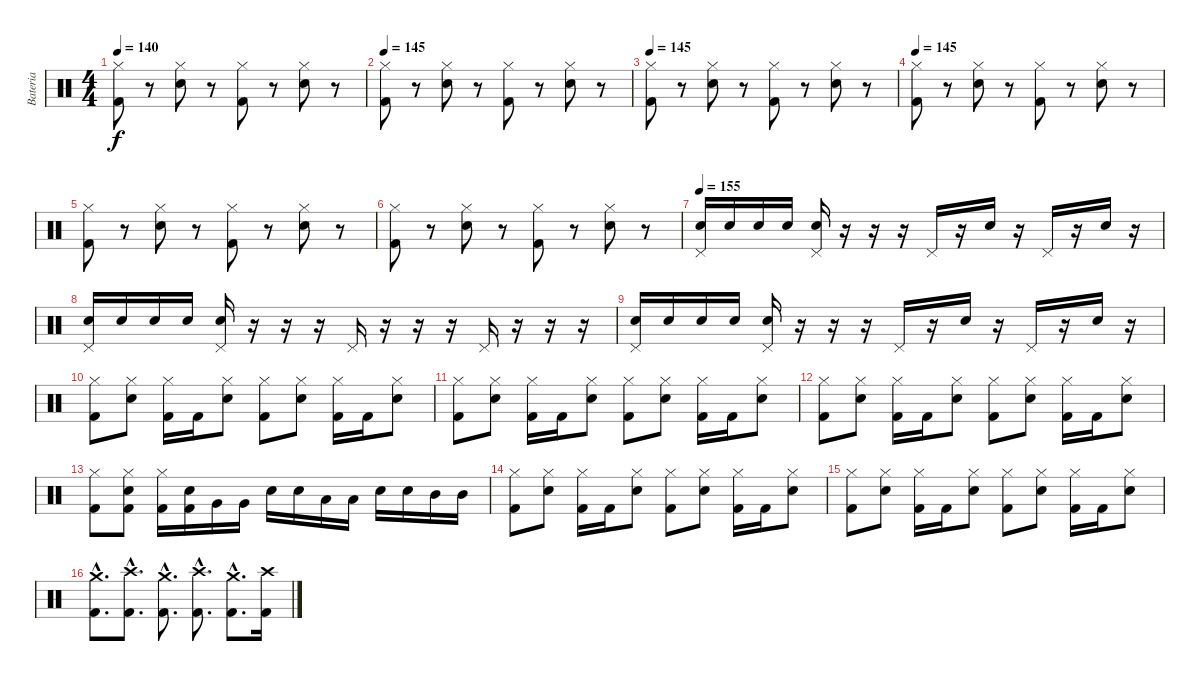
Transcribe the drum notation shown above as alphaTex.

\track ("Bateria" "Bateria") {instrument percussion}
\staff {score}
\articulation defaults
\ts (4 4)
\tempo 145
\tempo 140
\clef neutral
\ks c
("Hi-Hat (closed)" "Kick (hit) 2").8{dy f} r.8 ("Hi-Hat (closed)" "Electric Snare (hit)").8 r.8 ("Hi-Hat (closed)" "Kick (hit) 2").8 r.8 ("Hi-Hat (closed)" "Electric Snare (hit)").8 r.8 |
\tempo 145
("Hi-Hat (closed)" "Kick (hit) 2").8 r.8 ("Hi-Hat (closed)" "Electric Snare (hit)").8 r.8 ("Hi-Hat (closed)" "Kick (hit) 2").8 r.8 ("Hi-Hat (closed)" "Electric Snare (hit)").8 r.8 |
\tempo 145
("Hi-Hat (closed)" "Kick (hit) 2").8 r.8 ("Hi-Hat (closed)" "Electric Snare (hit)").8 r.8 ("Hi-Hat (closed)" "Kick (hit) 2").8 r.8 ("Hi-Hat (closed)" "Electric Snare (hit)").8 r.8 |
\tempo 145
("Hi-Hat (closed)" "Kick (hit) 2").8 r.8 ("Hi-Hat (closed)" "Electric Snare (hit)").8 r.8 ("Hi-Hat (closed)" "Kick (hit) 2").8 r.8 ("Hi-Hat (closed)" "Electric Snare (hit)").8 r.8 |
("Hi-Hat (closed)" "Kick (hit) 2").8 r.8 ("Hi-Hat (closed)" "Electric Snare (hit)").8 r.8 ("Hi-Hat (closed)" "Kick (hit) 2").8 r.8 ("Hi-Hat (closed)" "Electric Snare (hit)").8 r.8 |
("Hi-Hat (closed)" "Kick (hit) 2").8 r.8 ("Hi-Hat (closed)" "Electric Snare (hit)").8 r.8 ("Hi-Hat (closed)" "Kick (hit) 2").8 r.8 ("Hi-Hat (closed)" "Electric Snare (hit)").8 r.8 |
\tempo 155
("Pedal Hi-Hat (hit)" "Electric Snare (hit)").16 "Electric Snare (hit)".16 "Electric Snare (hit)".16 "Electric Snare (hit)".16 ("Pedal Hi-Hat (hit)" "Electric Snare (hit)").16 r.16 r.16 r.16 "Pedal Hi-Hat (hit)".16 r.16 "Electric Snare (hit)".16 r.16 "Pedal Hi-Hat (hit)".16 r.16 "Electric Snare (hit)".16 r.16 |
("Pedal Hi-Hat (hit)" "Electric Snare (hit)").16 "Electric Snare (hit)".16 "Electric Snare (hit)".16 "Electric Snare (hit)".16 ("Pedal Hi-Hat (hit)" "Electric Snare (hit)").16 r.16 r.16 r.16 "Pedal Hi-Hat (hit)".16 r.16 r.16 r.16 "Pedal Hi-Hat (hit)".16 r.16 r.16 r.16 |
("Pedal Hi-Hat (hit)" "Electric Snare (hit)").16 "Electric Snare (hit)".16 "Electric Snare (hit)".16 "Electric Snare (hit)".16 ("Pedal Hi-Hat (hit)" "Electric Snare (hit)").16 r.16 r.16 r.16 "Pedal Hi-Hat (hit)".16 r.16 "Electric Snare (hit)".16 r.16 "Pedal Hi-Hat (hit)".16 r.16 "Electric Snare (hit)".16 r.16 |
("Kick (hit) 2" "Hi-Hat (closed)").8 ("Electric Snare (hit)" "Hi-Hat (closed)").8 ("Kick (hit) 2" "Hi-Hat (closed)").16 "Kick (hit) 2".16 ("Electric Snare (hit)" "Hi-Hat (closed)").8 ("Kick (hit) 2" "Hi-Hat (closed)").8 ("Electric Snare (hit)" "Hi-Hat (closed)").8 ("Kick (hit) 2" "Hi-Hat (closed)").16 "Kick (hit) 2".16 ("Electric Snare (hit)" "Hi-Hat (closed)").8 |
("Kick (hit) 2" "Hi-Hat (closed)").8 ("Electric Snare (hit)" "Hi-Hat (closed)").8 ("Kick (hit) 2" "Hi-Hat (closed)").16 "Kick (hit) 2".16 ("Electric Snare (hit)" "Hi-Hat (closed)").8 ("Kick (hit) 2" "Hi-Hat (closed)").8 ("Electric Snare (hit)" "Hi-Hat (closed)").8 ("Kick (hit) 2" "Hi-Hat (closed)").16 "Kick (hit) 2".16 ("Electric Snare (hit)" "Hi-Hat (closed)").8 |
("Kick (hit) 2" "Hi-Hat (closed)").8 ("Electric Snare (hit)" "Hi-Hat (closed)").8 ("Kick (hit) 2" "Hi-Hat (closed)").16 "Kick (hit) 2".16 ("Electric Snare (hit)" "Hi-Hat (closed)").8 ("Kick (hit) 2" "Hi-Hat (closed)").8 ("Electric Snare (hit)" "Hi-Hat (closed)").8 ("Kick (hit) 2" "Hi-Hat (closed)").16 "Kick (hit) 2".16 ("Electric Snare (hit)" "Hi-Hat (closed)").8 |
("Kick (hit) 2" "Hi-Hat (closed)").8 ("Kick (hit) 2" "Hi-Hat (closed)" "Electric Snare (hit)").8 ("Kick (hit) 2" "Hi-Hat (closed)").16 ("Kick (hit) 2" "Electric Snare (hit)").16 "Very Low Tom (hit)".16 "Very Low Tom (hit)".16 "Electric Snare (hit)".16 "Electric Snare (hit)".16 "Low Tom (hit)".16 "Low Tom (hit)".16 "Electric Snare (hit)".16 "Electric Snare (hit)".16 "Mid Tom (hit)".16 "Mid Tom (hit)".16 |
("Kick (hit) 2" "Hi-Hat (closed)").8 ("Electric Snare (hit)" "Hi-Hat (closed)").8 ("Kick (hit) 2" "Hi-Hat (closed)").16 "Kick (hit) 2".16 ("Electric Snare (hit)" "Hi-Hat (closed)").8 ("Kick (hit) 2" "Hi-Hat (closed)").8 ("Electric Snare (hit)" "Hi-Hat (closed)").8 ("Kick (hit) 2" "Hi-Hat (closed)").16 "Kick (hit) 2".16 ("Electric Snare (hit)" "Hi-Hat (closed)").8 |
("Kick (hit) 2" "Hi-Hat (closed)").8 ("Electric Snare (hit)" "Hi-Hat (closed)").8 ("Kick (hit) 2" "Hi-Hat (closed)").16 "Kick (hit) 2".16 ("Electric Snare (hit)" "Hi-Hat (closed)").8 ("Kick (hit) 2" "Hi-Hat (closed)").8 ("Electric Snare (hit)" "Hi-Hat (closed)").8 ("Kick (hit) 2" "Hi-Hat (closed)").16 "Kick (hit) 2".16 ("Electric Snare (hit)" "Hi-Hat (closed)").8 |
("Kick (hit) 2"{hac} "Crash medium (hit)"{hac}).8{d} ("Kick (hit) 2"{hac} "Crash high (hit)"{hac}).8{d} ("Kick (hit) 2"{hac} "Crash medium (hit)"{hac}).8{d} ("Kick (hit) 2"{hac} "Crash high (hit)"{hac}).8{d} ("Kick (hit) 2"{hac} "Crash medium (hit)"{hac}).8{d} ("Kick (hit) 2" "Crash high (hit)").16
